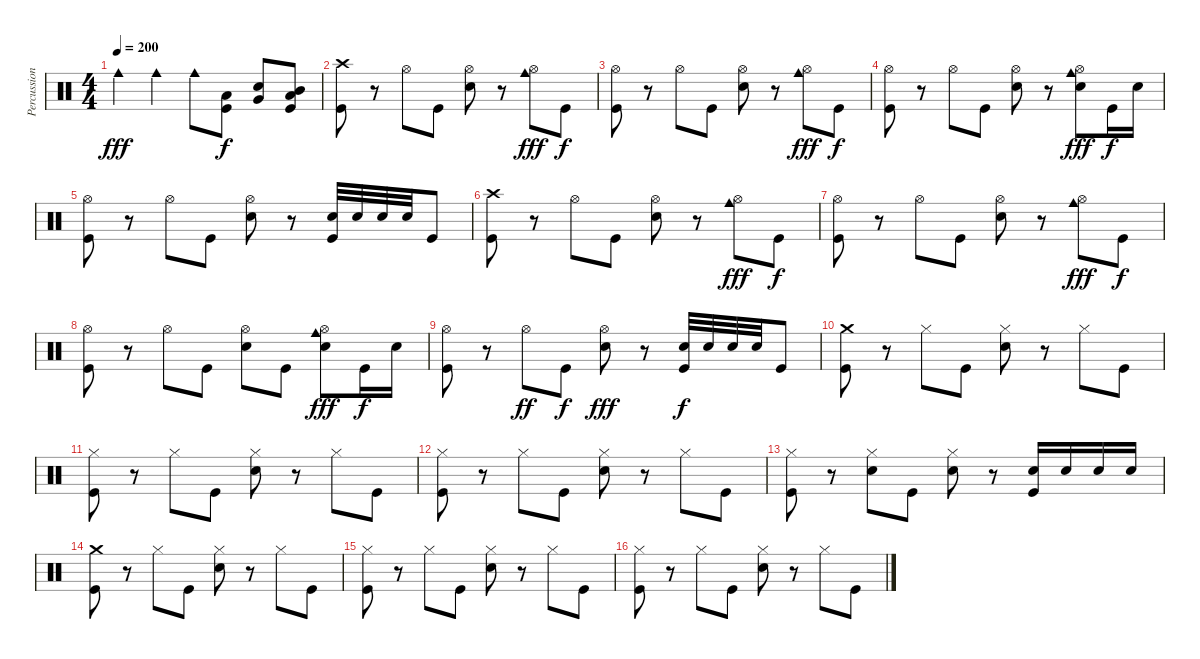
\track ("Percussion" "Percussion") {instrument percussion}
\staff {score}
\articulation defaults
\ts (4 4)
\tempo 200
\clef neutral
\ks c "Cowbell medium (hit)".4{dy fff} "Cowbell medium (hit)".4 "Cowbell medium (hit)".8
("Low Floor Tom (hit)" "Kick (hit)").8{dy f} ("Very Low Tom (hit)" "Electric Snare (hit)").8 ("Mid Tom (hit)" "Low Tom (hit)" "Kick (hit)").8 |
("Crash high (hit)" "Kick (hit)").8 r.8 "Hi-Hat (open)".8 "Kick (hit)".8 ("Hi-Hat (open)" "Electric Snare (hit)").8 r.8 ("Hi-Hat (open)" "Cowbell medium (hit)").8{dy fff} "Kick (hit)".8{dy f} |
("Hi-Hat (open)" "Kick (hit)").8 r.8 "Hi-Hat (open)".8 "Kick (hit)".8 ("Hi-Hat (open)" "Electric Snare (hit)").8 r.8 ("Hi-Hat (open)" "Cowbell medium (hit)").8{dy fff} "Kick (hit)".8{dy f} |
("Hi-Hat (open)" "Kick (hit)").8 r.8 "Hi-Hat (open)".8 "Kick (hit)".8 ("Hi-Hat (open)" "Electric Snare (hit)").8 r.8 ("Hi-Hat (open)" "Cowbell medium (hit)" "Electric Snare (hit)").8{dy fff} "Kick (hit)".16{dy f} "Electric Snare (hit)".16 |
("Hi-Hat (open)" "Kick (hit)").8 r.8 "Hi-Hat (open)".8 "Kick (hit)".8 ("Hi-Hat (open)" "Electric Snare (hit)").8 r.8 ("Electric Snare (hit)" "Kick (hit)").32 "Electric Snare (hit)".32 "Electric Snare (hit)".32 "Electric Snare (hit)".32 "Kick (hit)".8 |
("Crash high (hit)" "Kick (hit)").8 r.8 "Hi-Hat (open)".8 "Kick (hit)".8 ("Hi-Hat (open)" "Electric Snare (hit)").8 r.8 ("Hi-Hat (open)" "Cowbell medium (hit)").8{dy fff} "Kick (hit)".8{dy f} |
("Hi-Hat (open)" "Kick (hit)").8 r.8 "Hi-Hat (open)".8 "Kick (hit)".8 ("Hi-Hat (open)" "Electric Snare (hit)").8 r.8 ("Hi-Hat (open)" "Cowbell medium (hit)").8{dy fff} "Kick (hit)".8{dy f} |
("Hi-Hat (open)" "Kick (hit)").8 r.8 "Hi-Hat (open)".8 "Kick (hit)".8 ("Hi-Hat (open)" "Electric Snare (hit)").8 "Kick (hit)".8 ("Hi-Hat (open)" "Cowbell medium (hit)" "Electric Snare (hit)").8{dy fff} "Kick (hit)".16{dy f} "Electric Snare (hit)".16 |
("Hi-Hat (open)" "Kick (hit)").8 r.8 "Hi-Hat (open)".8{dy ff} "Kick (hit)".8{dy f} ("Hi-Hat (open)" "Electric Snare (hit)").8{dy fff} r.8 ("Electric Snare (hit)" "Kick (hit)").32{dy f} "Electric Snare (hit)".32 "Electric Snare (hit)".32 "Electric Snare (hit)".32 "Kick (hit)".8 |
("Crash medium (hit)" "Kick (hit)").8 r.8 "Hi-Hat (closed)".8 "Kick (hit)".8 ("Hi-Hat (closed)" "Electric Snare (hit)").8 r.8 "Hi-Hat (closed)".8 "Kick (hit)".8 |
("Hi-Hat (closed)" "Kick (hit)").8 r.8 "Hi-Hat (closed)".8 "Kick (hit)".8 ("Hi-Hat (closed)" "Electric Snare (hit)").8 r.8 "Hi-Hat (closed)".8 "Kick (hit)".8 |
("Hi-Hat (closed)" "Kick (hit)").8 r.8 "Hi-Hat (closed)".8 "Kick (hit)".8 ("Hi-Hat (closed)" "Electric Snare (hit)").8 r.8 "Hi-Hat (closed)".8 "Kick (hit)".8 |
("Hi-Hat (closed)" "Kick (hit)").8 r.8 ("Hi-Hat (closed)" "Electric Snare (hit)").8 "Kick (hit)".8 ("Hi-Hat (closed)" "Electric Snare (hit)").8 r.8 ("Electric Snare (hit)" "Kick (hit)").16 "Electric Snare (hit)".16 "Electric Snare (hit)".16 "Electric Snare (hit)".16 |
("Crash medium (hit)" "Kick (hit)").8 r.8 "Hi-Hat (closed)".8 "Kick (hit)".8 ("Hi-Hat (closed)" "Electric Snare (hit)").8 r.8 "Hi-Hat (closed)".8 "Kick (hit)".8 |
("Hi-Hat (closed)" "Kick (hit)").8 r.8 "Hi-Hat (closed)".8 "Kick (hit)".8 ("Hi-Hat (closed)" "Electric Snare (hit)").8 r.8 "Hi-Hat (closed)".8 "Kick (hit)".8 |
("Hi-Hat (closed)" "Kick (hit)").8 r.8 "Hi-Hat (closed)".8 "Kick (hit)".8 ("Hi-Hat (closed)" "Electric Snare (hit)").8 r.8 "Hi-Hat (closed)".8 "Kick (hit)".8
